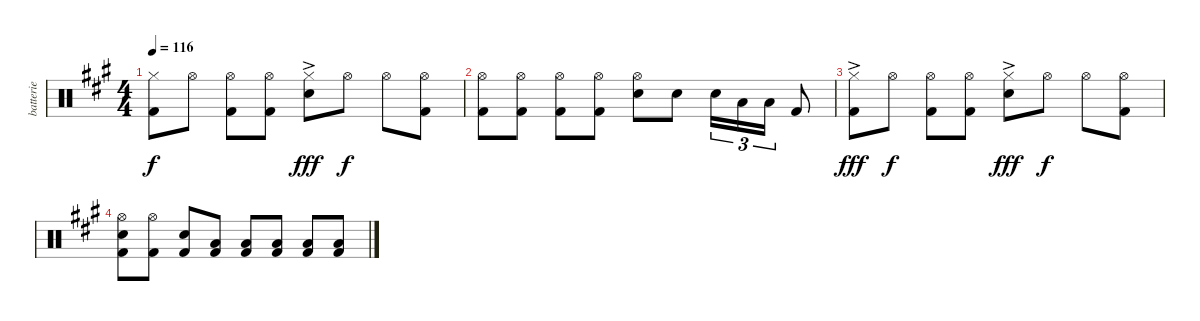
\track ("batterie" "batterie") {instrument percussion}
\staff {score}
\articulation defaults
\ts (4 4)
\tempo 116
\clef neutral
\ks a
("Hi-Hat (closed)" "Kick (hit) 2").8{dy f} "Hi-Hat (open)".8 ("Hi-Hat (open)" "Kick (hit) 2").8 ("Hi-Hat (open)" "Kick (hit) 2").8 ("Hi-Hat (closed)"{ac} "Snare (hit) 2").8{dy fff} "Hi-Hat (open)".8{dy f} "Hi-Hat (open)".8 ("Hi-Hat (open)" "Kick (hit) 2").8 |
("Hi-Hat (open)" "Kick (hit) 2").8 ("Hi-Hat (open)" "Kick (hit) 2").8 ("Hi-Hat (open)" "Kick (hit) 2").8 ("Hi-Hat (open)" "Kick (hit) 2").8 ("Hi-Hat (open)" "Snare (hit) 2").8 "Snare (hit) 2".8 "Snare (hit) 2".16{tu (3 2)} "Low Tom (hit)".16{tu (3 2)} "Low Floor Tom (hit)".16{tu (3 2)} "Kick (hit) 2".8 |
("Hi-Hat (closed)"{ac} "Kick (hit) 2").8{dy fff} "Hi-Hat (open)".8{dy f} ("Hi-Hat (open)" "Kick (hit) 2").8 ("Hi-Hat (open)" "Kick (hit) 2").8 ("Hi-Hat (closed)"{ac} "Snare (hit) 2").8{dy fff} "Hi-Hat (open)".8{dy f} "Hi-Hat (open)".8 ("Hi-Hat (open)" "Kick (hit) 2").8 |
("Hi-Hat (open)" "Snare (hit) 2" "Kick (hit) 2").8 ("Hi-Hat (open)" "Kick (hit) 2").8 ("Snare (hit) 2" "Kick (hit) 2").8 ("Low Tom (hit)" "Kick (hit) 2").8 ("Low Tom (hit)" "Kick (hit) 2").8 ("Kick (hit) 2" "Low Tom (hit)").8 ("Low Floor Tom (hit)" "Kick (hit) 2").8 ("Low Floor Tom (hit)" "Kick (hit) 2").8
